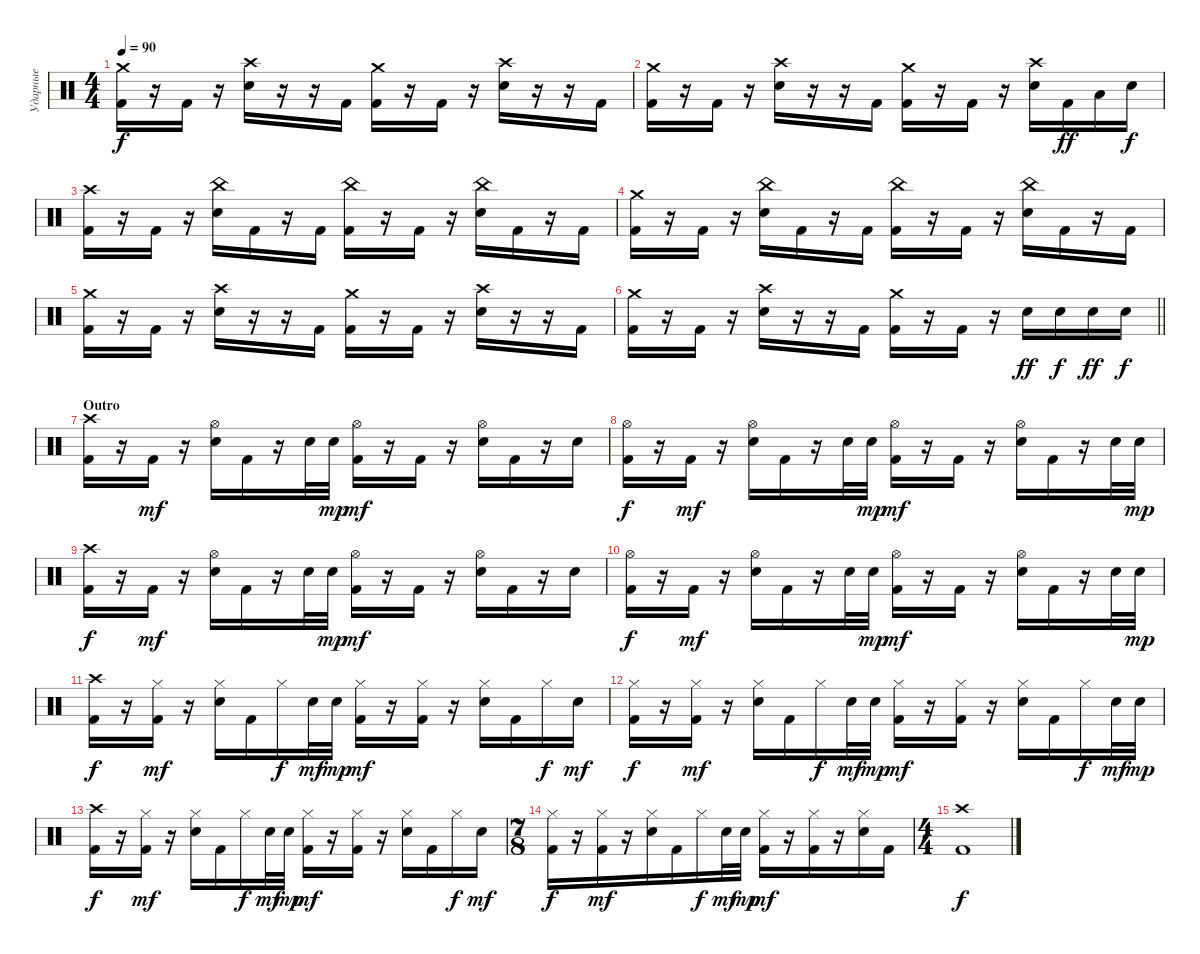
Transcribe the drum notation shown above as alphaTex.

\track ("Ударные" "Ударные") {instrument percussion}
\staff {score}
\articulation defaults
\ts (4 4)
\tempo 90
\clef neutral
\ks c
("Crash medium (hit)" "Kick (hit) 2").16{dy f} r.16 "Kick (hit) 2".16 r.16 ("Crash high (hit)" "Electric Snare (hit)").16 r.16 r.16 "Kick (hit) 2".16 ("Crash medium (hit)" "Kick (hit) 2").16 r.16 "Kick (hit) 2".16 r.16 ("Crash high (hit)" "Electric Snare (hit)").16 r.16 r.16 "Kick (hit) 2".16 |
("Crash medium (hit)" "Kick (hit) 2").16 r.16 "Kick (hit) 2".16 r.16 ("Crash high (hit)" "Electric Snare (hit)").16 r.16 r.16 "Kick (hit) 2".16 ("Crash medium (hit)" "Kick (hit) 2").16 r.16 "Kick (hit) 2".16 r.16 ("Crash high (hit)" "Electric Snare (hit)").16 "Kick (hit) 2".16{dy ff} "Low Tom (hit)".16 "Electric Snare (hit)".16{dy f} |
("Crash high (hit)" "Kick (hit) 2").16 r.16 "Kick (hit) 2".16 r.16 ("China (hit)" "Electric Snare (hit)").16 "Kick (hit) 2".16 r.16 "Kick (hit) 2".16 ("China (hit)" "Kick (hit) 2").16 r.16 "Kick (hit) 2".16 r.16 ("China (hit)" "Electric Snare (hit)").16 "Kick (hit) 2".16 r.16 "Kick (hit) 2".16 |
("Crash medium (hit)" "Kick (hit) 2").16 r.16 "Kick (hit) 2".16 r.16 ("China (hit)" "Electric Snare (hit)").16 "Kick (hit) 2".16 r.16 "Kick (hit) 2".16 ("China (hit)" "Kick (hit) 2").16 r.16 "Kick (hit) 2".16 r.16 ("China (hit)" "Electric Snare (hit)").16 "Kick (hit) 2".16 r.16 "Kick (hit) 2".16 |
("Crash medium (hit)" "Kick (hit) 2").16 r.16 "Kick (hit) 2".16 r.16 ("Crash high (hit)" "Electric Snare (hit)").16 r.16 r.16 "Kick (hit) 2".16 ("Crash medium (hit)" "Kick (hit) 2").16 r.16 "Kick (hit) 2".16 r.16 ("Crash high (hit)" "Electric Snare (hit)").16 r.16 r.16 "Kick (hit) 2".16 |
\barLineRight lightlight
("Crash medium (hit)" "Kick (hit) 2").16 r.16 "Kick (hit) 2".16 r.16 ("Crash high (hit)" "Electric Snare (hit)").16 r.16 r.16 "Kick (hit) 2".16 ("Crash medium (hit)" "Kick (hit) 2").16 r.16 "Kick (hit) 2".16 r.16 "Electric Snare (hit)".16{dy ff} "Electric Snare (hit)".16{dy f} "Electric Snare (hit)".16{dy ff} "Electric Snare (hit)".16{dy f} |
\section ("" "Outro")
("Crash high (hit)" "Kick (hit) 2").16 r.16 "Kick (hit) 2".16{dy mf} r.16 ("Hi-Hat (open)" "Electric Snare (hit)").16 "Kick (hit) 2".16 r.16 "Electric Snare (hit)".32 "Electric Snare (hit)".32{dy mp} ("Hi-Hat (open)" "Kick (hit) 2").16{dy mf} r.16 "Kick (hit) 2".16 r.16 ("Hi-Hat (open)" "Electric Snare (hit)").16 "Kick (hit) 2".16 r.16 "Electric Snare (hit)".16 |
("Hi-Hat (open)" "Kick (hit) 2").16{dy f} r.16 "Kick (hit) 2".16{dy mf} r.16 ("Hi-Hat (open)" "Electric Snare (hit)").16 "Kick (hit) 2".16 r.16 "Electric Snare (hit)".32 "Electric Snare (hit)".32{dy mp} ("Hi-Hat (open)" "Kick (hit) 2").16{dy mf} r.16 "Kick (hit) 2".16 r.16 ("Hi-Hat (open)" "Electric Snare (hit)").16 "Kick (hit) 2".16 r.16 "Electric Snare (hit)".32 "Electric Snare (hit)".32{dy mp} |
("Crash high (hit)" "Kick (hit) 2").16{dy f} r.16 "Kick (hit) 2".16{dy mf} r.16 ("Hi-Hat (open)" "Electric Snare (hit)").16 "Kick (hit) 2".16 r.16 "Electric Snare (hit)".32 "Electric Snare (hit)".32{dy mp} ("Hi-Hat (open)" "Kick (hit) 2").16{dy mf} r.16 "Kick (hit) 2".16 r.16 ("Hi-Hat (open)" "Electric Snare (hit)").16 "Kick (hit) 2".16 r.16 "Electric Snare (hit)".16 |
("Hi-Hat (open)" "Kick (hit) 2").16{dy f} r.16 "Kick (hit) 2".16{dy mf} r.16 ("Hi-Hat (open)" "Electric Snare (hit)").16 "Kick (hit) 2".16 r.16 "Electric Snare (hit)".32 "Electric Snare (hit)".32{dy mp} ("Hi-Hat (open)" "Kick (hit) 2").16{dy mf} r.16 "Kick (hit) 2".16 r.16 ("Hi-Hat (open)" "Electric Snare (hit)").16 "Kick (hit) 2".16 r.16 "Electric Snare (hit)".32 "Electric Snare (hit)".32{dy mp} |
("Crash high (hit)" "Kick (hit) 2").16{dy f} r.16 ("Hi-Hat (closed)" "Kick (hit) 2").16{dy mf} r.16 ("Hi-Hat (closed)" "Electric Snare (hit)").16 "Kick (hit) 2".16 "Hi-Hat (closed)".16{dy f} "Electric Snare (hit)".32{dy mf} "Electric Snare (hit)".32{dy mp} ("Hi-Hat (closed)" "Kick (hit) 2").16{dy mf} r.16 ("Hi-Hat (closed)" "Kick (hit) 2").16 r.16 ("Hi-Hat (closed)" "Electric Snare (hit)").16 "Kick (hit) 2".16 "Hi-Hat (closed)".16{dy f} "Electric Snare (hit)".16{dy mf} |
("Hi-Hat (closed)" "Kick (hit) 2").16{dy f} r.16 ("Hi-Hat (closed)" "Kick (hit) 2").16{dy mf} r.16 ("Hi-Hat (closed)" "Electric Snare (hit)").16 "Kick (hit) 2".16 "Hi-Hat (closed)".16{dy f} "Electric Snare (hit)".32{dy mf} "Electric Snare (hit)".32{dy mp} ("Hi-Hat (closed)" "Kick (hit) 2").16{dy mf} r.16 ("Hi-Hat (closed)" "Kick (hit) 2").16 r.16 ("Hi-Hat (closed)" "Electric Snare (hit)").16 "Kick (hit) 2".16 "Hi-Hat (closed)".16{dy f} "Electric Snare (hit)".32{dy mf} "Electric Snare (hit)".32{dy mp} |
("Crash high (hit)" "Kick (hit) 2").16{dy f} r.16 ("Hi-Hat (closed)" "Kick (hit) 2").16{dy mf} r.16 ("Hi-Hat (closed)" "Electric Snare (hit)").16 "Kick (hit) 2".16 "Hi-Hat (closed)".16{dy f} "Electric Snare (hit)".32{dy mf} "Electric Snare (hit)".32{dy mp} ("Hi-Hat (closed)" "Kick (hit) 2").16{dy mf} r.16 ("Hi-Hat (closed)" "Kick (hit) 2").16 r.16 ("Hi-Hat (closed)" "Electric Snare (hit)").16 "Kick (hit) 2".16 "Hi-Hat (closed)".16{dy f} "Electric Snare (hit)".16{dy mf} |
\ts (7 8)
("Hi-Hat (closed)" "Kick (hit) 2").16{dy f} r.16 ("Hi-Hat (closed)" "Kick (hit) 2").16{dy mf} r.16 ("Hi-Hat (closed)" "Electric Snare (hit)").16 "Kick (hit) 2".16 "Hi-Hat (closed)".16{dy f} "Electric Snare (hit)".32{dy mf} "Electric Snare (hit)".32{dy mp} ("Hi-Hat (closed)" "Kick (hit) 2").16{dy mf} r.16 ("Hi-Hat (closed)" "Kick (hit) 2").16 r.16 ("Hi-Hat (closed)" "Electric Snare (hit)").16 "Kick (hit) 2".16 |
\ts (4 4)
("Crash high (hit)" "Kick (hit) 2").1{dy f}
